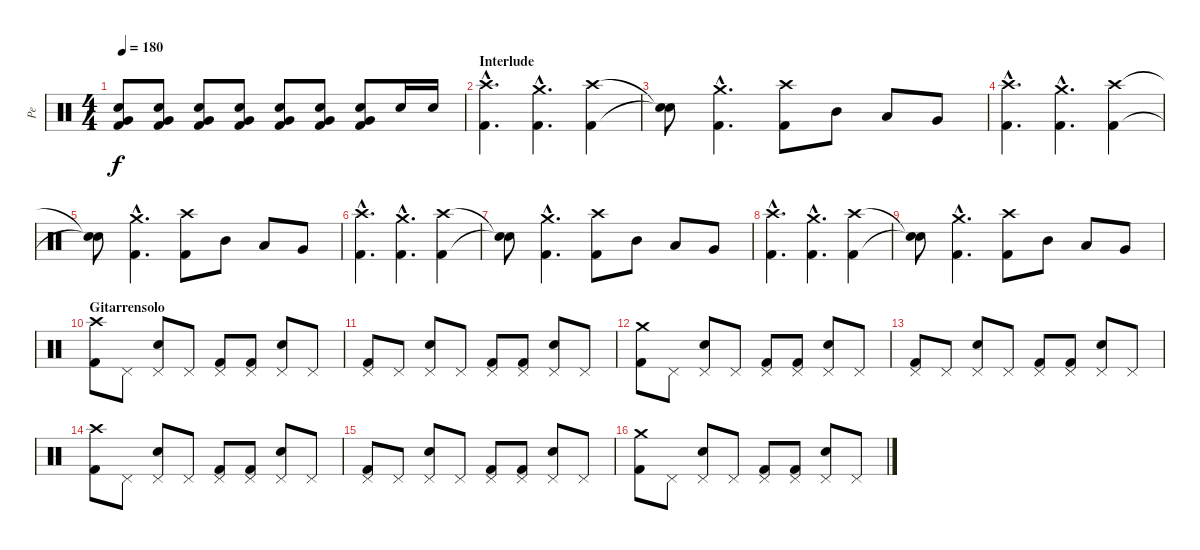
\track ("Pe" "Pe") {instrument percussion}
\staff {score}
\articulation defaults
\ts (4 4)
\tempo 180
\clef neutral
\ks c
("Electric Snare (hit)" "Very Low Tom (hit)" "Kick (hit) 2").8{dy f} ("Electric Snare (hit)" "Very Low Tom (hit)" "Kick (hit) 2").8 ("Electric Snare (hit)" "Very Low Tom (hit)" "Kick (hit) 2").8 ("Electric Snare (hit)" "Very Low Tom (hit)" "Kick (hit) 2").8 ("Electric Snare (hit)" "Very Low Tom (hit)" "Kick (hit) 2").8 ("Electric Snare (hit)" "Very Low Tom (hit)" "Kick (hit) 2").8 ("Electric Snare (hit)" "Very Low Tom (hit)" "Kick (hit) 2").8 "Electric Snare (hit)".16 "Electric Snare (hit)".16 |
\section ("" "Interlude")
("Crash high (hit)"{hac} "Kick (hit) 2"{hac}).4{d} ("Crash medium (hit)"{hac} "Kick (hit) 2"{hac}).4{d} ("Crash high (hit)" "Kick (hit) 2").4 |
("Snare (hit)"{t} "Snare (hit)"{t}).8 ("Crash medium (hit)"{hac} "Kick (hit) 2"{hac}).4{d} ("Crash high (hit)" "Kick (hit) 2").8 "Mid Tom (hit)".8 "Low Tom (hit)".8 "Very Low Tom (hit)".8 |
("Crash high (hit)"{hac} "Kick (hit) 2"{hac}).4{d} ("Crash medium (hit)"{hac} "Kick (hit) 2"{hac}).4{d} ("Crash high (hit)" "Kick (hit) 2").4 |
("Snare (hit)"{t} "Snare (hit)"{t}).8 ("Crash medium (hit)"{hac} "Kick (hit) 2"{hac}).4{d} ("Crash high (hit)" "Kick (hit) 2").8 "Mid Tom (hit)".8 "Low Tom (hit)".8 "Very Low Tom (hit)".8 |
("Crash high (hit)"{hac} "Kick (hit) 2"{hac}).4{d} ("Crash medium (hit)"{hac} "Kick (hit) 2"{hac}).4{d} ("Crash high (hit)" "Kick (hit) 2").4 |
("Snare (hit)"{t} "Snare (hit)"{t}).8 ("Crash medium (hit)"{hac} "Kick (hit) 2"{hac}).4{d} ("Crash high (hit)" "Kick (hit) 2").8 "Mid Tom (hit)".8 "Low Tom (hit)".8 "Very Low Tom (hit)".8 |
("Crash high (hit)"{hac} "Kick (hit) 2"{hac}).4{d} ("Crash medium (hit)"{hac} "Kick (hit) 2"{hac}).4{d} ("Crash high (hit)" "Kick (hit) 2").4 |
("Snare (hit)"{t} "Snare (hit)"{t}).8 ("Crash medium (hit)"{hac} "Kick (hit) 2"{hac}).4{d} ("Crash high (hit)" "Kick (hit) 2").8 "Mid Tom (hit)".8 "Low Tom (hit)".8 "Very Low Tom (hit)".8 |
\section ("" "Gitarrensolo")
("Crash high (hit)" "Kick (hit) 2").8 "Pedal Hi-Hat (hit)".8 ("Pedal Hi-Hat (hit)" "Electric Snare (hit)").8 "Pedal Hi-Hat (hit)".8 ("Pedal Hi-Hat (hit)" "Kick (hit) 2").8 ("Pedal Hi-Hat (hit)" "Kick (hit) 2").8 ("Pedal Hi-Hat (hit)" "Electric Snare (hit)").8 "Pedal Hi-Hat (hit)".8 |
("Pedal Hi-Hat (hit)" "Kick (hit) 2").8 "Pedal Hi-Hat (hit)".8 ("Pedal Hi-Hat (hit)" "Electric Snare (hit)").8 "Pedal Hi-Hat (hit)".8 ("Pedal Hi-Hat (hit)" "Kick (hit) 2").8 ("Pedal Hi-Hat (hit)" "Kick (hit) 2").8 ("Pedal Hi-Hat (hit)" "Electric Snare (hit)").8 "Pedal Hi-Hat (hit)".8 |
("Crash medium (hit)" "Kick (hit) 2").8 "Pedal Hi-Hat (hit)".8 ("Pedal Hi-Hat (hit)" "Electric Snare (hit)").8 "Pedal Hi-Hat (hit)".8 ("Pedal Hi-Hat (hit)" "Kick (hit) 2").8 ("Pedal Hi-Hat (hit)" "Kick (hit) 2").8 ("Pedal Hi-Hat (hit)" "Electric Snare (hit)").8 "Pedal Hi-Hat (hit)".8 |
("Pedal Hi-Hat (hit)" "Kick (hit) 2").8 "Pedal Hi-Hat (hit)".8 ("Pedal Hi-Hat (hit)" "Electric Snare (hit)").8 "Pedal Hi-Hat (hit)".8 ("Pedal Hi-Hat (hit)" "Kick (hit) 2").8 ("Pedal Hi-Hat (hit)" "Kick (hit) 2").8 ("Pedal Hi-Hat (hit)" "Electric Snare (hit)").8 "Pedal Hi-Hat (hit)".8 |
("Crash high (hit)" "Kick (hit) 2").8 "Pedal Hi-Hat (hit)".8 ("Pedal Hi-Hat (hit)" "Electric Snare (hit)").8 "Pedal Hi-Hat (hit)".8 ("Pedal Hi-Hat (hit)" "Kick (hit) 2").8 ("Pedal Hi-Hat (hit)" "Kick (hit) 2").8 ("Pedal Hi-Hat (hit)" "Electric Snare (hit)").8 "Pedal Hi-Hat (hit)".8 |
("Pedal Hi-Hat (hit)" "Kick (hit) 2").8 "Pedal Hi-Hat (hit)".8 ("Pedal Hi-Hat (hit)" "Electric Snare (hit)").8 "Pedal Hi-Hat (hit)".8 ("Pedal Hi-Hat (hit)" "Kick (hit) 2").8 ("Pedal Hi-Hat (hit)" "Kick (hit) 2").8 ("Pedal Hi-Hat (hit)" "Electric Snare (hit)").8 "Pedal Hi-Hat (hit)".8 |
("Crash medium (hit)" "Kick (hit) 2").8 "Pedal Hi-Hat (hit)".8 ("Pedal Hi-Hat (hit)" "Electric Snare (hit)").8 "Pedal Hi-Hat (hit)".8 ("Pedal Hi-Hat (hit)" "Kick (hit) 2").8 ("Pedal Hi-Hat (hit)" "Kick (hit) 2").8 ("Pedal Hi-Hat (hit)" "Electric Snare (hit)").8 "Pedal Hi-Hat (hit)".8
